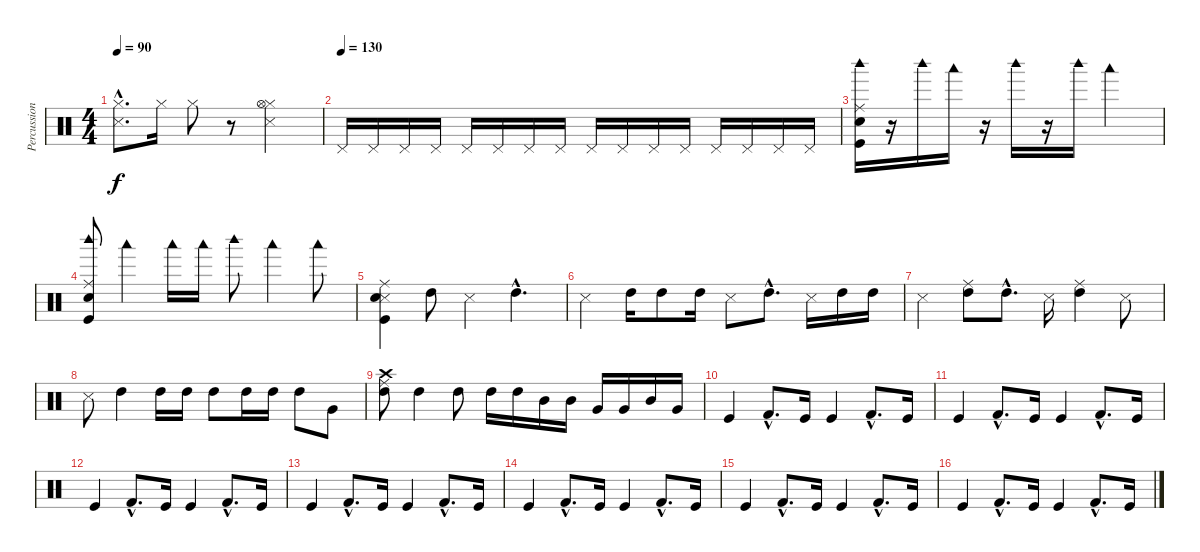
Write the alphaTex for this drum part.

\track ("Percussions" "Percussion") {instrument percussion}
\staff {score}
\articulation defaults
\ts (4 4)
\tempo 90
\clef neutral
\ks c
("Metronome (hit)"{hac} "Hi-Hat (closed)"{hac}).8{d dy f} "Hi-Hat (closed)".16 "Hi-Hat (closed)".8 r.8 ("Metronome (hit)" "Hi-Hat (closed)" "Hi-Hat (open)").2 |
\tempo (130)
"Pedal Hi-Hat (hit)".16{volume 6} "Pedal Hi-Hat (hit)".16 "Pedal Hi-Hat (hit)".16 "Pedal Hi-Hat (hit)".16 "Pedal Hi-Hat (hit)".16{volume 8} "Pedal Hi-Hat (hit)".16 "Pedal Hi-Hat (hit)".16 "Pedal Hi-Hat (hit)".16 "Pedal Hi-Hat (hit)".16{volume 10} "Pedal Hi-Hat (hit)".16 "Pedal Hi-Hat (hit)".16 "Pedal Hi-Hat (hit)".16 "Pedal Hi-Hat (hit)".16{volume 12} "Pedal Hi-Hat (hit)".16 "Pedal Hi-Hat (hit)".16 "Pedal Hi-Hat (hit)".16 |
("Kick (hit)" "Ride (middle)" "Woodblock high (hit)" "Electric Snare (hit)").16 r.16 "Woodblock high (hit)".16 "Woodblock low (hit)".16 r.16 "Woodblock high (hit)".16 r.16 "Woodblock high (hit)".16 "Woodblock low (hit)".2 |
("Kick (hit)" "Ride (middle)" "Woodblock high (hit)" "Electric Snare (hit)").8 "Woodblock low (hit)".4 "Woodblock low (hit)".16 "Woodblock low (hit)".16 "Woodblock high (hit)".8 "Woodblock low (hit)".4 "Woodblock low (hit)".8 |
("Kick (hit)" "Ride (middle)" "Metronome (hit)" "Electric Snare (hit)").4 "High Tom (hit)".8 "Metronome (hit)".4 "High Tom (hit)"{hac}.4{d} |
"Metronome (hit)".4 "High Tom (hit)".16 "High Tom (hit)".8 "High Tom (hit)".16 "Metronome (hit)".8 "High Tom (hit)"{hac}.8{d} "Metronome (hit)".16 "High Tom (hit)".16 "High Tom (hit)".16 |
"Metronome (hit)".4 ("Ride (middle)" "High Tom (hit)").8 "High Tom (hit)"{hac}.8{d} "Metronome (hit)".16 ("Ride (middle)" "High Tom (hit)").4 "Metronome (hit)".8 |
"Metronome (hit)".8 "High Tom (hit)".4 "High Tom (hit)".16 "High Tom (hit)".16 "High Tom (hit)".8 "High Tom (hit)".16 "High Tom (hit)".16 "High Tom (hit)".8 "Very Low Tom (hit)".8 |
("Crash high (hit)" "Ride (middle)" "High Tom (hit)").8 "High Tom (hit)".4 "High Tom (hit)".8 "High Tom (hit)".16 "High Tom (hit)".16 "Mid Tom (hit)".16 "Mid Tom (hit)".16 "Very Low Tom (hit)".16 "Very Low Tom (hit)".16 "Mid Tom (hit)".16 "Very Low Tom (hit)".16 |
"Kick (hit)".4{volume 16} "Kick (hit) 2"{hac}.8{d} "Kick (hit)".16 "Kick (hit)".4 "Kick (hit) 2"{hac}.8{d} "Kick (hit)".16 |
"Kick (hit)".4 "Kick (hit) 2"{hac}.8{d} "Kick (hit)".16 "Kick (hit)".4 "Kick (hit) 2"{hac}.8{d} "Kick (hit)".16 |
"Kick (hit)".4 "Kick (hit) 2"{hac}.8{d} "Kick (hit)".16 "Kick (hit)".4 "Kick (hit) 2"{hac}.8{d} "Kick (hit)".16 |
"Kick (hit)".4 "Kick (hit) 2"{hac}.8{d} "Kick (hit)".16 "Kick (hit)".4 "Kick (hit) 2"{hac}.8{d} "Kick (hit)".16 |
"Kick (hit)".4 "Kick (hit) 2"{hac}.8{d} "Kick (hit)".16 "Kick (hit)".4 "Kick (hit) 2"{hac}.8{d} "Kick (hit)".16 |
"Kick (hit)".4 "Kick (hit) 2"{hac}.8{d} "Kick (hit)".16 "Kick (hit)".4 "Kick (hit) 2"{hac}.8{d} "Kick (hit)".16 |
"Kick (hit)".4 "Kick (hit) 2"{hac}.8{d} "Kick (hit)".16 "Kick (hit)".4 "Kick (hit) 2"{hac}.8{d} "Kick (hit)".16
